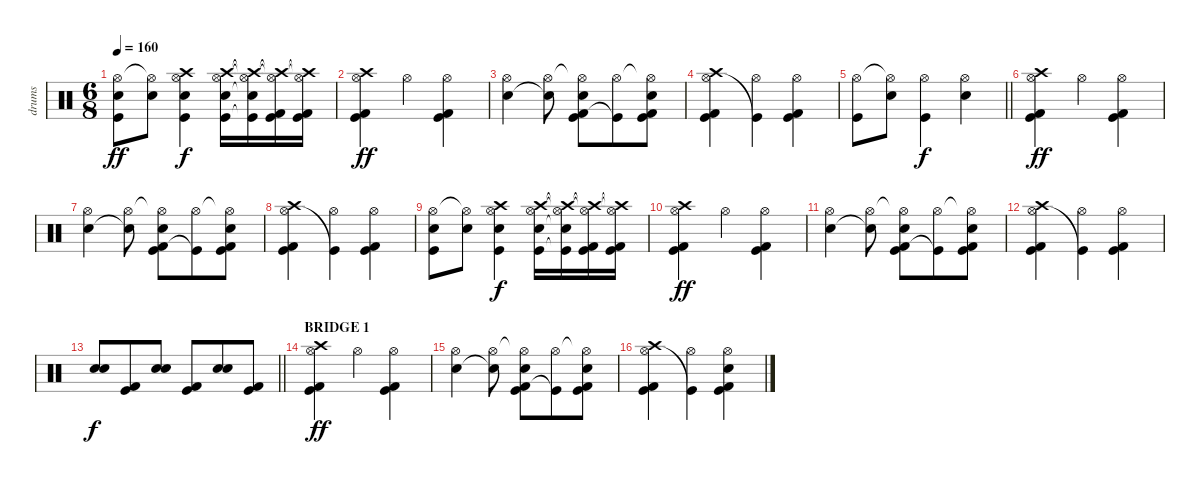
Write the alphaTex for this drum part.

\track ("drums" "drums") {instrument percussion}
\staff {score}
\articulation defaults
\ts (6 8)
\tempo 160
\clef neutral
\ks c
("Hi-Hat (open)" "Electric Snare (hit)" "Kick (hit)").8{dy ff} ("Hi-Hat (open)"{t} "Electric Snare (hit)").8 ("Crash high (hit)" "Hi-Hat (open)" "Electric Snare (hit)" "Kick (hit)").4{dy f} ("Crash high (hit)" "Hi-Hat (open)" "Electric Snare (hit)" "Kick (hit)").16 ("Crash high (hit)"{t} "Hi-Hat (open)"{t} "Electric Snare (hit)"{t} "Kick (hit)"{t}).16 ("Crash high (hit)"{t} "Hi-Hat (open)"{t} "Kick (hit) 2" "Kick (hit)").16 ("Crash high (hit)"{t} "Hi-Hat (open)"{t} "Kick (hit) 2" "Kick (hit)").16 |
("Crash high (hit)" "Hi-Hat (open)" "Kick (hit) 2" "Kick (hit)").4{dy ff} "Hi-Hat (open)".4 ("Hi-Hat (open)" "Kick (hit) 2" "Kick (hit)").4 |
("Hi-Hat (open)" "Electric Snare (hit)").4 ("Hi-Hat (open)" "Electric Snare (hit)"{t}).8 ("Hi-Hat (open)"{t} "Kick (hit) 2" "Electric Snare (hit)" "Kick (hit)").8 ("Hi-Hat (open)" "Kick (hit)"{t}).8 ("Hi-Hat (open)"{t} "Kick (hit) 2" "Electric Snare (hit)" "Kick (hit)").8 |
("Crash high (hit)" "Hi-Hat (open)" "Kick (hit) 2" "Kick (hit)").4 ("Hi-Hat (open)" "Kick (hit)"{t}).4 ("Hi-Hat (open)" "Kick (hit) 2" "Kick (hit)").4 |
\barLineRight lightlight
("Hi-Hat (open)" "Kick (hit)").8 ("Hi-Hat (open)"{t} "Electric Snare (hit)").8 ("Hi-Hat (open)" "Kick (hit)").4{dy f} ("Hi-Hat (open)" "Electric Snare (hit)").4 |
("Crash high (hit)" "Hi-Hat (open)" "Kick (hit) 2" "Kick (hit)").4{dy ff} "Hi-Hat (open)".4 ("Hi-Hat (open)" "Kick (hit) 2" "Kick (hit)").4 |
("Hi-Hat (open)" "Electric Snare (hit)").4 ("Hi-Hat (open)" "Electric Snare (hit)"{t}).8 ("Hi-Hat (open)"{t} "Kick (hit) 2" "Electric Snare (hit)" "Kick (hit)").8 ("Hi-Hat (open)" "Kick (hit)"{t}).8 ("Hi-Hat (open)"{t} "Kick (hit) 2" "Electric Snare (hit)" "Kick (hit)").8 |
("Crash high (hit)" "Hi-Hat (open)" "Kick (hit) 2" "Kick (hit)").4 ("Hi-Hat (open)" "Kick (hit)"{t}).4 ("Hi-Hat (open)" "Kick (hit) 2" "Kick (hit)").4 |
("Hi-Hat (open)" "Electric Snare (hit)" "Kick (hit)").8 ("Hi-Hat (open)"{t} "Electric Snare (hit)").8 ("Crash high (hit)" "Hi-Hat (open)" "Electric Snare (hit)" "Kick (hit)").4{dy f} ("Crash high (hit)" "Hi-Hat (open)" "Electric Snare (hit)" "Kick (hit)").16 ("Crash high (hit)"{t} "Hi-Hat (open)"{t} "Electric Snare (hit)"{t} "Kick (hit)"{t}).16 ("Crash high (hit)"{t} "Hi-Hat (open)"{t} "Kick (hit) 2" "Kick (hit)").16 ("Crash high (hit)"{t} "Hi-Hat (open)"{t} "Kick (hit) 2" "Kick (hit)").16 |
("Crash high (hit)" "Hi-Hat (open)" "Kick (hit) 2" "Kick (hit)").4{dy ff} "Hi-Hat (open)".4 ("Hi-Hat (open)" "Kick (hit) 2" "Kick (hit)").4 |
("Hi-Hat (open)" "Electric Snare (hit)").4 ("Hi-Hat (open)" "Electric Snare (hit)"{t}).8 ("Hi-Hat (open)"{t} "Kick (hit) 2" "Electric Snare (hit)" "Kick (hit)").8 ("Hi-Hat (open)" "Kick (hit)"{t}).8 ("Hi-Hat (open)"{t} "Kick (hit) 2" "Electric Snare (hit)" "Kick (hit)").8 |
("Crash high (hit)" "Hi-Hat (open)" "Kick (hit) 2" "Kick (hit)").4 ("Hi-Hat (open)" "Kick (hit)"{t}).4 ("Hi-Hat (open)" "Kick (hit) 2" "Kick (hit)").4 |
\barLineRight lightlight
("Snare (hit) 2" "Electric Snare (hit)").8{dy f} ("Kick (hit)" "Kick (hit) 2").8 ("Snare (hit) 2" "Electric Snare (hit)").8 ("Kick (hit)" "Kick (hit) 2").8 ("Snare (hit) 2" "Electric Snare (hit)").8 ("Kick (hit)" "Kick (hit) 2").8 |
\section ("" "BRIDGE 1")
("Crash high (hit)" "Hi-Hat (open)" "Kick (hit) 2" "Kick (hit)").4{dy ff} "Hi-Hat (open)".4 ("Hi-Hat (open)" "Kick (hit) 2" "Kick (hit)").4 |
("Hi-Hat (open)" "Electric Snare (hit)").4 ("Hi-Hat (open)" "Electric Snare (hit)"{t}).8 ("Hi-Hat (open)"{t} "Kick (hit) 2" "Electric Snare (hit)" "Kick (hit)").8 ("Hi-Hat (open)" "Kick (hit)"{t}).8 ("Hi-Hat (open)"{t} "Kick (hit) 2" "Electric Snare (hit)" "Kick (hit)").8 |
("Crash high (hit)" "Hi-Hat (open)" "Kick (hit) 2" "Kick (hit)").4 ("Hi-Hat (open)" "Kick (hit)"{t}).4 ("Hi-Hat (open)" "Electric Snare (hit)" "Kick (hit) 2" "Kick (hit)").4
